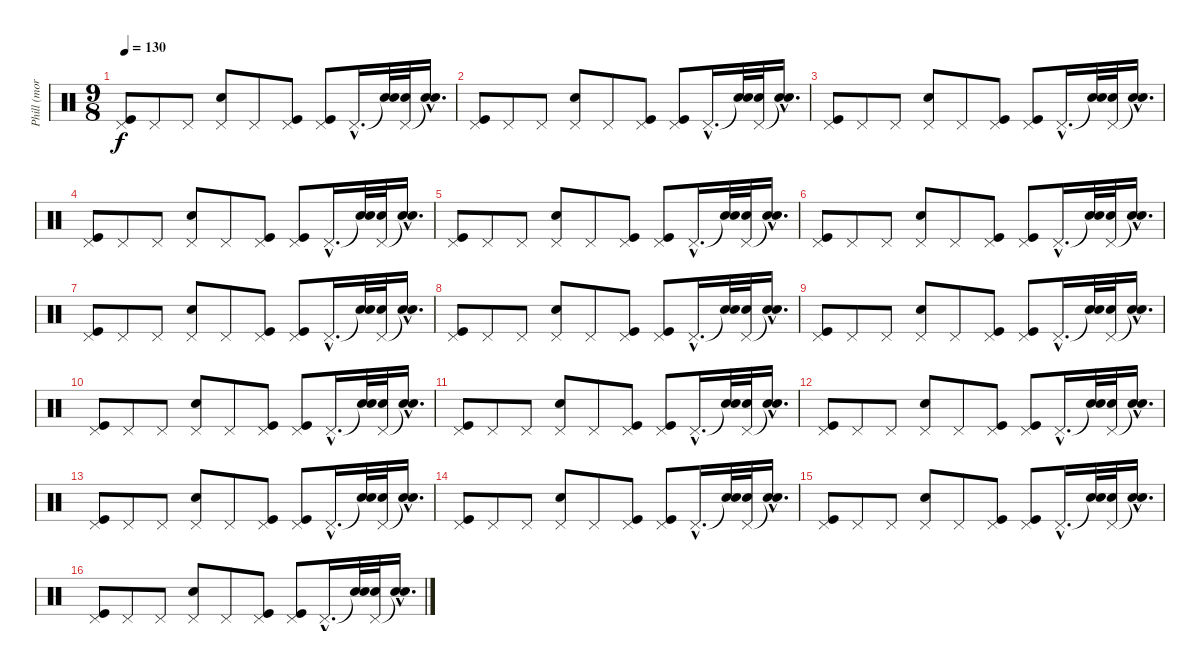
\track ("Phill (mornig bell)" "Phill (mor") {instrument percussion}
\staff {score}
\articulation defaults
\ts (9 8)
\tempo 130
\clef neutral
\ks c
("Pedal Hi-Hat (hit)" "Kick (hit)").8{dy f} "Pedal Hi-Hat (hit)".8 "Pedal Hi-Hat (hit)".8 ("Pedal Hi-Hat (hit)" "Snare (hit) 2").8 "Pedal Hi-Hat (hit)".8 ("Pedal Hi-Hat (hit)" "Kick (hit)").8 ("Pedal Hi-Hat (hit)" "Kick (hit)").8 "Pedal Hi-Hat (hit)"{hac}.16{d} ("Snare (hit)"{t} "Snare (hit) 2").32 ("Pedal Hi-Hat (hit)" "Snare (hit) 2").32 ("Snare (hit)"{hac t} "Snare (hit) 2"{hac}).16{d} |
("Pedal Hi-Hat (hit)" "Kick (hit)").8 "Pedal Hi-Hat (hit)".8 "Pedal Hi-Hat (hit)".8 ("Pedal Hi-Hat (hit)" "Snare (hit) 2").8 "Pedal Hi-Hat (hit)".8 ("Pedal Hi-Hat (hit)" "Kick (hit)").8 ("Pedal Hi-Hat (hit)" "Kick (hit)").8 "Pedal Hi-Hat (hit)"{hac}.16{d} ("Snare (hit)"{t} "Snare (hit) 2").32 ("Pedal Hi-Hat (hit)" "Snare (hit) 2").32 ("Snare (hit)"{hac t} "Snare (hit) 2"{hac}).16{d} |
("Pedal Hi-Hat (hit)" "Kick (hit)").8 "Pedal Hi-Hat (hit)".8 "Pedal Hi-Hat (hit)".8 ("Pedal Hi-Hat (hit)" "Snare (hit) 2").8 "Pedal Hi-Hat (hit)".8 ("Pedal Hi-Hat (hit)" "Kick (hit)").8 ("Pedal Hi-Hat (hit)" "Kick (hit)").8 "Pedal Hi-Hat (hit)"{hac}.16{d} ("Snare (hit)"{t} "Snare (hit) 2").32 ("Pedal Hi-Hat (hit)" "Snare (hit) 2").32 ("Snare (hit)"{hac t} "Snare (hit) 2"{hac}).16{d} |
("Pedal Hi-Hat (hit)" "Kick (hit)").8 "Pedal Hi-Hat (hit)".8 "Pedal Hi-Hat (hit)".8 ("Pedal Hi-Hat (hit)" "Snare (hit) 2").8 "Pedal Hi-Hat (hit)".8 ("Pedal Hi-Hat (hit)" "Kick (hit)").8 ("Pedal Hi-Hat (hit)" "Kick (hit)").8 "Pedal Hi-Hat (hit)"{hac}.16{d} ("Snare (hit)"{t} "Snare (hit) 2").32 ("Pedal Hi-Hat (hit)" "Snare (hit) 2").32 ("Snare (hit)"{hac t} "Snare (hit) 2"{hac}).16{d} |
("Pedal Hi-Hat (hit)" "Kick (hit)").8 "Pedal Hi-Hat (hit)".8 "Pedal Hi-Hat (hit)".8 ("Pedal Hi-Hat (hit)" "Snare (hit) 2").8 "Pedal Hi-Hat (hit)".8 ("Pedal Hi-Hat (hit)" "Kick (hit)").8 ("Pedal Hi-Hat (hit)" "Kick (hit)").8 "Pedal Hi-Hat (hit)"{hac}.16{d} ("Snare (hit)"{t} "Snare (hit) 2").32 ("Pedal Hi-Hat (hit)" "Snare (hit) 2").32 ("Snare (hit)"{hac t} "Snare (hit) 2"{hac}).16{d} |
("Pedal Hi-Hat (hit)" "Kick (hit)").8 "Pedal Hi-Hat (hit)".8 "Pedal Hi-Hat (hit)".8 ("Pedal Hi-Hat (hit)" "Snare (hit) 2").8 "Pedal Hi-Hat (hit)".8 ("Pedal Hi-Hat (hit)" "Kick (hit)").8 ("Pedal Hi-Hat (hit)" "Kick (hit)").8 "Pedal Hi-Hat (hit)"{hac}.16{d} ("Snare (hit)"{t} "Snare (hit) 2").32 ("Pedal Hi-Hat (hit)" "Snare (hit) 2").32 ("Snare (hit)"{hac t} "Snare (hit) 2"{hac}).16{d} |
("Pedal Hi-Hat (hit)" "Kick (hit)").8 "Pedal Hi-Hat (hit)".8 "Pedal Hi-Hat (hit)".8 ("Pedal Hi-Hat (hit)" "Snare (hit) 2").8 "Pedal Hi-Hat (hit)".8 ("Pedal Hi-Hat (hit)" "Kick (hit)").8 ("Pedal Hi-Hat (hit)" "Kick (hit)").8 "Pedal Hi-Hat (hit)"{hac}.16{d} ("Snare (hit)"{t} "Snare (hit) 2").32 ("Pedal Hi-Hat (hit)" "Snare (hit) 2").32 ("Snare (hit)"{hac t} "Snare (hit) 2"{hac}).16{d} |
("Pedal Hi-Hat (hit)" "Kick (hit)").8 "Pedal Hi-Hat (hit)".8 "Pedal Hi-Hat (hit)".8 ("Pedal Hi-Hat (hit)" "Snare (hit) 2").8 "Pedal Hi-Hat (hit)".8 ("Pedal Hi-Hat (hit)" "Kick (hit)").8 ("Pedal Hi-Hat (hit)" "Kick (hit)").8 "Pedal Hi-Hat (hit)"{hac}.16{d} ("Snare (hit)"{t} "Snare (hit) 2").32 ("Pedal Hi-Hat (hit)" "Snare (hit) 2").32 ("Snare (hit)"{hac t} "Snare (hit) 2"{hac}).16{d} |
("Pedal Hi-Hat (hit)" "Kick (hit)").8 "Pedal Hi-Hat (hit)".8 "Pedal Hi-Hat (hit)".8 ("Pedal Hi-Hat (hit)" "Snare (hit) 2").8 "Pedal Hi-Hat (hit)".8 ("Pedal Hi-Hat (hit)" "Kick (hit)").8 ("Pedal Hi-Hat (hit)" "Kick (hit)").8 "Pedal Hi-Hat (hit)"{hac}.16{d} ("Snare (hit)"{t} "Snare (hit) 2").32 ("Pedal Hi-Hat (hit)" "Snare (hit) 2").32 ("Snare (hit)"{hac t} "Snare (hit) 2"{hac}).16{d} |
("Pedal Hi-Hat (hit)" "Kick (hit)").8 "Pedal Hi-Hat (hit)".8 "Pedal Hi-Hat (hit)".8 ("Pedal Hi-Hat (hit)" "Snare (hit) 2").8 "Pedal Hi-Hat (hit)".8 ("Pedal Hi-Hat (hit)" "Kick (hit)").8 ("Pedal Hi-Hat (hit)" "Kick (hit)").8 "Pedal Hi-Hat (hit)"{hac}.16{d} ("Snare (hit)"{t} "Snare (hit) 2").32 ("Pedal Hi-Hat (hit)" "Snare (hit) 2").32 ("Snare (hit)"{hac t} "Snare (hit) 2"{hac}).16{d} |
("Pedal Hi-Hat (hit)" "Kick (hit)").8 "Pedal Hi-Hat (hit)".8 "Pedal Hi-Hat (hit)".8 ("Pedal Hi-Hat (hit)" "Snare (hit) 2").8 "Pedal Hi-Hat (hit)".8 ("Pedal Hi-Hat (hit)" "Kick (hit)").8 ("Pedal Hi-Hat (hit)" "Kick (hit)").8 "Pedal Hi-Hat (hit)"{hac}.16{d} ("Snare (hit)"{t} "Snare (hit) 2").32 ("Pedal Hi-Hat (hit)" "Snare (hit) 2").32 ("Snare (hit)"{hac t} "Snare (hit) 2"{hac}).16{d} |
("Pedal Hi-Hat (hit)" "Kick (hit)").8 "Pedal Hi-Hat (hit)".8 "Pedal Hi-Hat (hit)".8 ("Pedal Hi-Hat (hit)" "Snare (hit) 2").8 "Pedal Hi-Hat (hit)".8 ("Pedal Hi-Hat (hit)" "Kick (hit)").8 ("Pedal Hi-Hat (hit)" "Kick (hit)").8 "Pedal Hi-Hat (hit)"{hac}.16{d} ("Snare (hit)"{t} "Snare (hit) 2").32 ("Pedal Hi-Hat (hit)" "Snare (hit) 2").32 ("Snare (hit)"{hac t} "Snare (hit) 2"{hac}).16{d} |
("Pedal Hi-Hat (hit)" "Kick (hit)").8 "Pedal Hi-Hat (hit)".8 "Pedal Hi-Hat (hit)".8 ("Pedal Hi-Hat (hit)" "Snare (hit) 2").8 "Pedal Hi-Hat (hit)".8 ("Pedal Hi-Hat (hit)" "Kick (hit)").8 ("Pedal Hi-Hat (hit)" "Kick (hit)").8 "Pedal Hi-Hat (hit)"{hac}.16{d} ("Snare (hit)"{t} "Snare (hit) 2").32 ("Pedal Hi-Hat (hit)" "Snare (hit) 2").32 ("Snare (hit)"{hac t} "Snare (hit) 2"{hac}).16{d} |
("Pedal Hi-Hat (hit)" "Kick (hit)").8 "Pedal Hi-Hat (hit)".8 "Pedal Hi-Hat (hit)".8 ("Pedal Hi-Hat (hit)" "Snare (hit) 2").8 "Pedal Hi-Hat (hit)".8 ("Pedal Hi-Hat (hit)" "Kick (hit)").8 ("Pedal Hi-Hat (hit)" "Kick (hit)").8 "Pedal Hi-Hat (hit)"{hac}.16{d} ("Snare (hit)"{t} "Snare (hit) 2").32 ("Pedal Hi-Hat (hit)" "Snare (hit) 2").32 ("Snare (hit)"{hac t} "Snare (hit) 2"{hac}).16{d} |
("Pedal Hi-Hat (hit)" "Kick (hit)").8 "Pedal Hi-Hat (hit)".8 "Pedal Hi-Hat (hit)".8 ("Pedal Hi-Hat (hit)" "Snare (hit) 2").8 "Pedal Hi-Hat (hit)".8 ("Pedal Hi-Hat (hit)" "Kick (hit)").8 ("Pedal Hi-Hat (hit)" "Kick (hit)").8 "Pedal Hi-Hat (hit)"{hac}.16{d} ("Snare (hit)"{t} "Snare (hit) 2").32 ("Pedal Hi-Hat (hit)" "Snare (hit) 2").32 ("Snare (hit)"{hac t} "Snare (hit) 2"{hac}).16{d} |
("Pedal Hi-Hat (hit)" "Kick (hit)").8 "Pedal Hi-Hat (hit)".8 "Pedal Hi-Hat (hit)".8 ("Pedal Hi-Hat (hit)" "Snare (hit) 2").8 "Pedal Hi-Hat (hit)".8 ("Pedal Hi-Hat (hit)" "Kick (hit)").8 ("Pedal Hi-Hat (hit)" "Kick (hit)").8 "Pedal Hi-Hat (hit)"{hac}.16{d} ("Snare (hit)"{t} "Snare (hit) 2").32 ("Pedal Hi-Hat (hit)" "Snare (hit) 2").32 ("Snare (hit)"{hac t} "Snare (hit) 2"{hac}).16{d}
